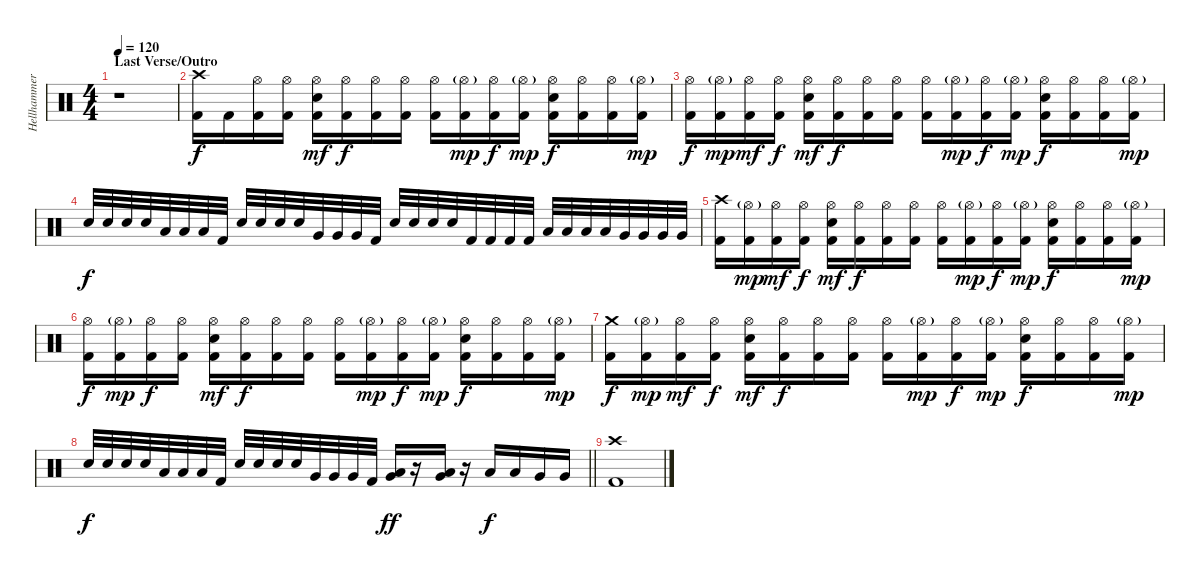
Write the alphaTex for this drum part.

\track ("Hellhammer" "Hellhammer") {instrument percussion}
\staff {score}
\articulation defaults
\ts (4 4)
\section ("" "Last Verse/Outro")
\tempo 120
\clef neutral
\ks c
r.1{dy f} |
("Crash high (hit)" "Kick (hit) 2").16 "Kick (hit) 2".16 ("Hi-Hat (open)" "Kick (hit) 2").16 ("Hi-Hat (open)" "Kick (hit) 2").16 ("Hi-Hat (open)" "Snare (hit) 2" "Kick (hit) 2").16{dy mf} ("Hi-Hat (open)" "Kick (hit) 2").16{dy f} ("Hi-Hat (open)" "Kick (hit) 2").16 ("Hi-Hat (open)" "Kick (hit) 2").16 ("Hi-Hat (open)" "Kick (hit) 2").16 ("Hi-Hat (open)"{g} "Kick (hit) 2").16{dy mp} ("Hi-Hat (open)" "Kick (hit) 2").16{dy f} ("Hi-Hat (open)"{g} "Kick (hit) 2").16{dy mp} ("Hi-Hat (open)" "Snare (hit) 2" "Kick (hit) 2").16{dy f} ("Hi-Hat (open)" "Kick (hit) 2").16 ("Hi-Hat (open)" "Kick (hit) 2").16 ("Hi-Hat (open)"{g} "Kick (hit) 2").16{dy mp} |
("Hi-Hat (open)" "Kick (hit) 2").16{dy f} ("Hi-Hat (open)"{g} "Kick (hit) 2").16{dy mp} ("Hi-Hat (open)" "Kick (hit) 2").16{dy mf} ("Hi-Hat (open)" "Kick (hit) 2").16{dy f} ("Hi-Hat (open)" "Snare (hit) 2" "Kick (hit) 2").16{dy mf} ("Hi-Hat (open)" "Kick (hit) 2").16{dy f} ("Hi-Hat (open)" "Kick (hit) 2").16 ("Hi-Hat (open)" "Kick (hit) 2").16 ("Hi-Hat (open)" "Kick (hit) 2").16 ("Hi-Hat (open)"{g} "Kick (hit) 2").16{dy mp} ("Hi-Hat (open)" "Kick (hit) 2").16{dy f} ("Hi-Hat (open)"{g} "Kick (hit) 2").16{dy mp} ("Hi-Hat (open)" "Snare (hit) 2" "Kick (hit) 2").16{dy f} ("Hi-Hat (open)" "Kick (hit) 2").16 ("Hi-Hat (open)" "Kick (hit) 2").16 ("Hi-Hat (open)"{g} "Kick (hit) 2").16{dy mp} |
"Snare (hit) 2".32{dy f} "Snare (hit) 2".32 "Snare (hit) 2".32 "Snare (hit) 2".32 "Low Tom (hit)".32 "Low Tom (hit)".32 "Low Tom (hit)".32 "Kick (hit) 2".32 "Snare (hit) 2".32 "Snare (hit) 2".32 "Snare (hit) 2".32 "Snare (hit) 2".32 "Very Low Tom (hit)".32 "Very Low Tom (hit)".32 "Very Low Tom (hit)".32 "Kick (hit) 2".32 "Snare (hit) 2".32 "Snare (hit) 2".32 "Snare (hit) 2".32 "Snare (hit) 2".32 "Kick (hit) 2".32 "Kick (hit) 2".32 "Kick (hit) 2".32 "Kick (hit) 2".32 "Low Tom (hit)".32 "Low Tom (hit)".32 "Low Tom (hit)".32 "Low Tom (hit)".32 "Very Low Tom (hit)".32 "Very Low Tom (hit)".32 "Very Low Tom (hit)".32 "Very Low Tom (hit)".32 |
("Crash high (hit)" "Kick (hit) 2").16 ("Hi-Hat (open)"{g} "Kick (hit) 2").16{dy mp} ("Hi-Hat (open)" "Kick (hit) 2").16{dy mf} ("Hi-Hat (open)" "Kick (hit) 2").16{dy f} ("Hi-Hat (open)" "Snare (hit) 2" "Kick (hit) 2").16{dy mf} ("Hi-Hat (open)" "Kick (hit) 2").16{dy f} ("Hi-Hat (open)" "Kick (hit) 2").16 ("Hi-Hat (open)" "Kick (hit) 2").16 ("Hi-Hat (open)" "Kick (hit) 2").16 ("Hi-Hat (open)"{g} "Kick (hit) 2").16{dy mp} ("Hi-Hat (open)" "Kick (hit) 2").16{dy f} ("Hi-Hat (open)"{g} "Kick (hit) 2").16{dy mp} ("Hi-Hat (open)" "Snare (hit) 2" "Kick (hit) 2").16{dy f} ("Hi-Hat (open)" "Kick (hit) 2").16 ("Hi-Hat (open)" "Kick (hit) 2").16 ("Hi-Hat (open)"{g} "Kick (hit) 2").16{dy mp} |
("Hi-Hat (open)" "Kick (hit) 2").16{dy f} ("Hi-Hat (open)"{g} "Kick (hit) 2").16{dy mp} ("Hi-Hat (open)" "Kick (hit) 2").16{dy f} ("Hi-Hat (open)" "Kick (hit) 2").16 ("Hi-Hat (open)" "Snare (hit) 2" "Kick (hit) 2").16{dy mf} ("Hi-Hat (open)" "Kick (hit) 2").16{dy f} ("Hi-Hat (open)" "Kick (hit) 2").16 ("Hi-Hat (open)" "Kick (hit) 2").16 ("Hi-Hat (open)" "Kick (hit) 2").16 ("Hi-Hat (open)"{g} "Kick (hit) 2").16{dy mp} ("Hi-Hat (open)" "Kick (hit) 2").16{dy f} ("Hi-Hat (open)"{g} "Kick (hit) 2").16{dy mp} ("Hi-Hat (open)" "Snare (hit) 2" "Kick (hit) 2").16{dy f} ("Hi-Hat (open)" "Kick (hit) 2").16 ("Hi-Hat (open)" "Kick (hit) 2").16 ("Hi-Hat (open)"{g} "Kick (hit) 2").16{dy mp} |
("Crash medium (hit)" "Kick (hit) 2").16{dy f} ("Hi-Hat (open)"{g} "Kick (hit) 2").16{dy mp} ("Hi-Hat (open)" "Kick (hit) 2").16{dy mf} ("Hi-Hat (open)" "Kick (hit) 2").16{dy f} ("Hi-Hat (open)" "Snare (hit) 2" "Kick (hit) 2").16{dy mf} ("Hi-Hat (open)" "Kick (hit) 2").16{dy f} ("Hi-Hat (open)" "Kick (hit) 2").16 ("Hi-Hat (open)" "Kick (hit) 2").16 ("Hi-Hat (open)" "Kick (hit) 2").16 ("Hi-Hat (open)"{g} "Kick (hit) 2").16{dy mp} ("Hi-Hat (open)" "Kick (hit) 2").16{dy f} ("Hi-Hat (open)"{g} "Kick (hit) 2").16{dy mp} ("Hi-Hat (open)" "Snare (hit) 2" "Kick (hit) 2").16{dy f} ("Hi-Hat (open)" "Kick (hit) 2").16 ("Hi-Hat (open)" "Kick (hit) 2").16 ("Hi-Hat (open)"{g} "Kick (hit) 2").16{dy mp} |
\barLineRight lightlight "Snare (hit) 2".32{dy f} "Snare (hit) 2".32 "Snare (hit) 2".32 "Snare (hit) 2".32 "Low Tom (hit)".32 "Low Tom (hit)".32 "Low Tom (hit)".32 "Kick (hit) 2".32 "Snare (hit) 2".32 "Snare (hit) 2".32 "Snare (hit) 2".32 "Snare (hit) 2".32 "Very Low Tom (hit)".32 "Very Low Tom (hit)".32 "Very Low Tom (hit)".32 "Kick (hit) 2".32
("Very Low Tom (hit)" "Low Floor Tom (hit)").16{dy ff} r.16 ("Low Tom (hit)" "Very Low Tom (hit)").16 r.16 "Low Tom (hit)".16{dy f} "Low Tom (hit)".16 "Very Low Tom (hit)".16 "Very Low Tom (hit)".16 |
("Crash high (hit)" "Kick (hit) 2").1
